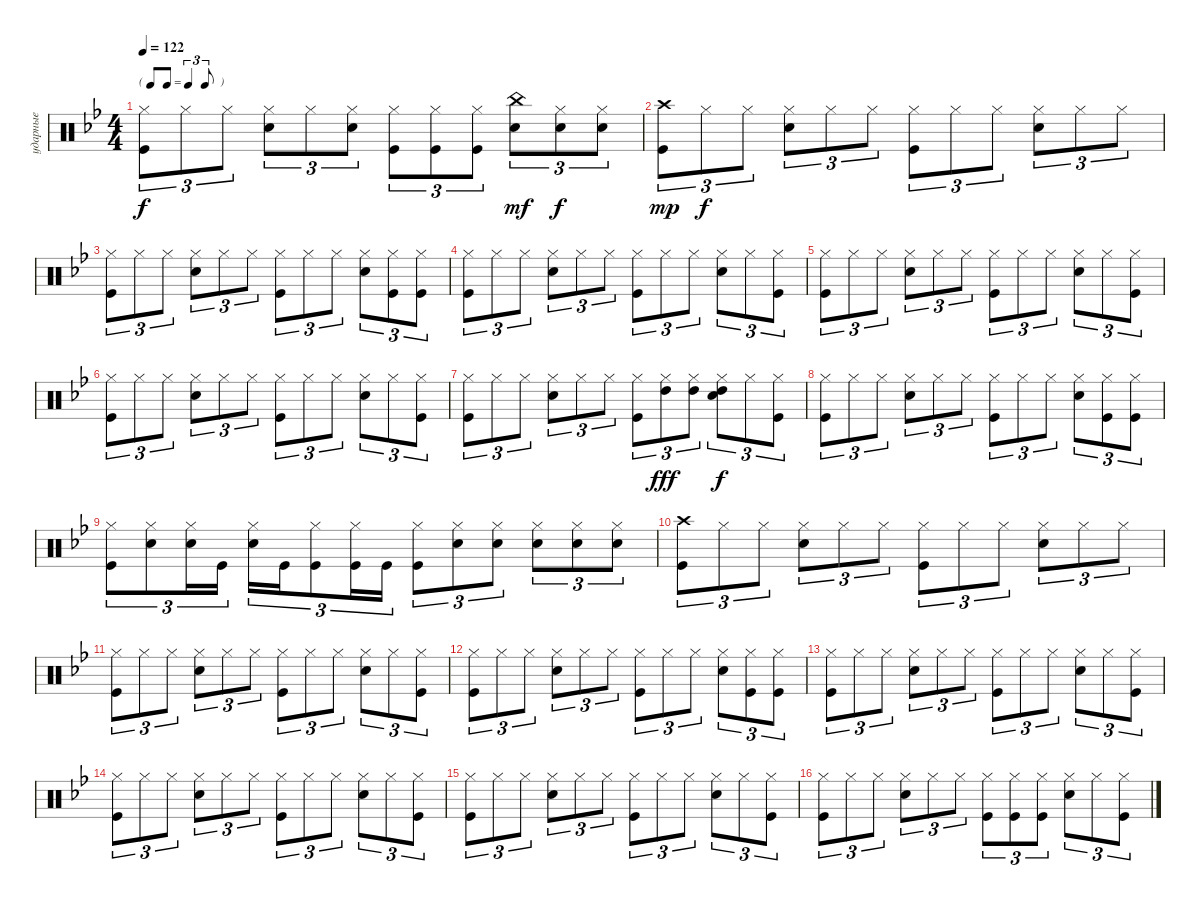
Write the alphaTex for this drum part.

\track ("ударные" "ударные") {instrument percussion}
\staff {score}
\articulation defaults
\ts (4 4)
\tf triplet8th
\tempo 122
\clef neutral
\ks gminor
("Hi-Hat (closed)" "Kick (hit)").8{tu (3 2) dy f} "Hi-Hat (closed)".8{tu (3 2)} "Hi-Hat (closed)".8{tu (3 2)} ("Hi-Hat (closed)" "Snare (hit) 2").8{tu (3 2)} "Hi-Hat (closed)".8{tu (3 2)} ("Hi-Hat (closed)" "Snare (hit) 2").8{tu (3 2)} ("Hi-Hat (closed)" "Kick (hit)").8{tu (3 2)} ("Hi-Hat (closed)" "Kick (hit)").8{tu (3 2)} ("Hi-Hat (closed)" "Kick (hit)").8{tu (3 2)} ("Snare (hit) 2" "China (hit)").8{tu (3 2) dy mf} ("Hi-Hat (closed)" "Snare (hit) 2").8{tu (3 2) dy f} ("Hi-Hat (closed)" "Snare (hit) 2").8{tu (3 2)} |
("Kick (hit)" "Crash high (hit)").8{tu (3 2) dy mp} "Hi-Hat (closed)".8{tu (3 2) dy f} "Hi-Hat (closed)".8{tu (3 2)} ("Hi-Hat (closed)" "Snare (hit) 2").8{tu (3 2)} "Hi-Hat (closed)".8{tu (3 2)} "Hi-Hat (closed)".8{tu (3 2)} ("Hi-Hat (closed)" "Kick (hit)").8{tu (3 2)} "Hi-Hat (closed)".8{tu (3 2)} "Hi-Hat (closed)".8{tu (3 2)} ("Hi-Hat (closed)" "Snare (hit) 2").8{tu (3 2)} "Hi-Hat (closed)".8{tu (3 2)} "Hi-Hat (closed)".8{tu (3 2)} |
("Hi-Hat (closed)" "Kick (hit)").8{tu (3 2)} "Hi-Hat (closed)".8{tu (3 2)} "Hi-Hat (closed)".8{tu (3 2)} ("Hi-Hat (closed)" "Snare (hit) 2").8{tu (3 2)} "Hi-Hat (closed)".8{tu (3 2)} "Hi-Hat (closed)".8{tu (3 2)} ("Hi-Hat (closed)" "Kick (hit)").8{tu (3 2)} "Hi-Hat (closed)".8{tu (3 2)} "Hi-Hat (closed)".8{tu (3 2)} ("Hi-Hat (closed)" "Snare (hit) 2").8{tu (3 2)} ("Hi-Hat (closed)" "Kick (hit)").8{tu (3 2)} ("Hi-Hat (closed)" "Kick (hit)").8{tu (3 2)} |
("Hi-Hat (closed)" "Kick (hit)").8{tu (3 2)} "Hi-Hat (closed)".8{tu (3 2)} "Hi-Hat (closed)".8{tu (3 2)} ("Hi-Hat (closed)" "Snare (hit) 2").8{tu (3 2)} "Hi-Hat (closed)".8{tu (3 2)} "Hi-Hat (closed)".8{tu (3 2)} ("Hi-Hat (closed)" "Kick (hit)").8{tu (3 2)} "Hi-Hat (closed)".8{tu (3 2)} "Hi-Hat (closed)".8{tu (3 2)} ("Hi-Hat (closed)" "Snare (hit) 2").8{tu (3 2)} "Hi-Hat (closed)".8{tu (3 2)} ("Hi-Hat (closed)" "Kick (hit)").8{tu (3 2)} |
("Hi-Hat (closed)" "Kick (hit)").8{tu (3 2)} "Hi-Hat (closed)".8{tu (3 2)} "Hi-Hat (closed)".8{tu (3 2)} ("Hi-Hat (closed)" "Snare (hit) 2").8{tu (3 2)} "Hi-Hat (closed)".8{tu (3 2)} "Hi-Hat (closed)".8{tu (3 2)} ("Hi-Hat (closed)" "Kick (hit)").8{tu (3 2)} "Hi-Hat (closed)".8{tu (3 2)} "Hi-Hat (closed)".8{tu (3 2)} ("Hi-Hat (closed)" "Snare (hit) 2").8{tu (3 2)} "Hi-Hat (closed)".8{tu (3 2)} ("Hi-Hat (closed)" "Kick (hit)").8{tu (3 2)} |
("Hi-Hat (closed)" "Kick (hit)").8{tu (3 2)} "Hi-Hat (closed)".8{tu (3 2)} "Hi-Hat (closed)".8{tu (3 2)} ("Hi-Hat (closed)" "Snare (hit) 2").8{tu (3 2)} "Hi-Hat (closed)".8{tu (3 2)} "Hi-Hat (closed)".8{tu (3 2)} ("Hi-Hat (closed)" "Kick (hit)").8{tu (3 2)} "Hi-Hat (closed)".8{tu (3 2)} "Hi-Hat (closed)".8{tu (3 2)} ("Hi-Hat (closed)" "Snare (hit) 2").8{tu (3 2)} "Hi-Hat (closed)".8{tu (3 2)} ("Hi-Hat (closed)" "Kick (hit)").8{tu (3 2)} |
("Hi-Hat (closed)" "Kick (hit)").8{tu (3 2)} "Hi-Hat (closed)".8{tu (3 2)} "Hi-Hat (closed)".8{tu (3 2)} ("Hi-Hat (closed)" "Snare (hit) 2").8{tu (3 2)} "Hi-Hat (closed)".8{tu (3 2)} "Hi-Hat (closed)".8{tu (3 2)} ("Hi-Hat (closed)" "Kick (hit)").8{tu (3 2)} ("Hi-Hat (closed)" "High Tom (hit)").8{tu (3 2) dy fff} ("Hi-Hat (closed)" "High Tom (hit)").8{tu (3 2)} ("Hi-Hat (closed)" "Snare (hit) 2" "High Tom (hit)").8{tu (3 2) dy f} "Hi-Hat (closed)".8{tu (3 2)} ("Hi-Hat (closed)" "Kick (hit)").8{tu (3 2)} |
("Hi-Hat (closed)" "Kick (hit)").8{tu (3 2)} "Hi-Hat (closed)".8{tu (3 2)} "Hi-Hat (closed)".8{tu (3 2)} ("Hi-Hat (closed)" "Snare (hit) 2").8{tu (3 2)} "Hi-Hat (closed)".8{tu (3 2)} "Hi-Hat (closed)".8{tu (3 2)} ("Hi-Hat (closed)" "Kick (hit)").8{tu (3 2)} "Hi-Hat (closed)".8{tu (3 2)} "Hi-Hat (closed)".8{tu (3 2)} ("Hi-Hat (closed)" "Snare (hit) 2").8{tu (3 2)} ("Hi-Hat (closed)" "Kick (hit)").8{tu (3 2)} ("Hi-Hat (closed)" "Kick (hit)").8{tu (3 2)} |
("Hi-Hat (closed)" "Kick (hit)").8{tu (3 2)} ("Hi-Hat (closed)" "Snare (hit) 2").8{tu (3 2)} ("Hi-Hat (closed)" "Snare (hit) 2").16{tu (3 2)} "Kick (hit)".16{tu (3 2)} ("Hi-Hat (closed)" "Snare (hit) 2").16{tu (3 2)} "Kick (hit)".16{tu (3 2)} ("Hi-Hat (closed)" "Kick (hit)").8{tu (3 2)} ("Hi-Hat (closed)" "Kick (hit)").16{tu (3 2)} "Kick (hit)".16{tu (3 2)} ("Hi-Hat (closed)" "Kick (hit)").8{tu (3 2)} ("Hi-Hat (closed)" "Snare (hit) 2").8{tu (3 2)} ("Hi-Hat (closed)" "Snare (hit) 2").8{tu (3 2)} ("Hi-Hat (closed)" "Snare (hit) 2").8{tu (3 2)} ("Hi-Hat (closed)" "Snare (hit) 2").8{tu (3 2)} ("Hi-Hat (closed)" "Snare (hit) 2").8{tu (3 2)} |
("Kick (hit)" "Crash high (hit)").8{tu (3 2)} "Hi-Hat (closed)".8{tu (3 2)} "Hi-Hat (closed)".8{tu (3 2)} ("Hi-Hat (closed)" "Snare (hit) 2").8{tu (3 2)} "Hi-Hat (closed)".8{tu (3 2)} "Hi-Hat (closed)".8{tu (3 2)} ("Hi-Hat (closed)" "Kick (hit)").8{tu (3 2)} "Hi-Hat (closed)".8{tu (3 2)} "Hi-Hat (closed)".8{tu (3 2)} ("Hi-Hat (closed)" "Snare (hit) 2").8{tu (3 2)} "Hi-Hat (closed)".8{tu (3 2)} "Hi-Hat (closed)".8{tu (3 2)} |
("Hi-Hat (closed)" "Kick (hit)").8{tu (3 2)} "Hi-Hat (closed)".8{tu (3 2)} "Hi-Hat (closed)".8{tu (3 2)} ("Hi-Hat (closed)" "Snare (hit) 2").8{tu (3 2)} "Hi-Hat (closed)".8{tu (3 2)} "Hi-Hat (closed)".8{tu (3 2)} ("Hi-Hat (closed)" "Kick (hit)").8{tu (3 2)} "Hi-Hat (closed)".8{tu (3 2)} "Hi-Hat (closed)".8{tu (3 2)} ("Hi-Hat (closed)" "Snare (hit) 2").8{tu (3 2)} "Hi-Hat (closed)".8{tu (3 2)} ("Hi-Hat (closed)" "Kick (hit)").8{tu (3 2)} |
("Hi-Hat (closed)" "Kick (hit)").8{tu (3 2)} "Hi-Hat (closed)".8{tu (3 2)} "Hi-Hat (closed)".8{tu (3 2)} ("Hi-Hat (closed)" "Snare (hit) 2").8{tu (3 2)} "Hi-Hat (closed)".8{tu (3 2)} "Hi-Hat (closed)".8{tu (3 2)} ("Hi-Hat (closed)" "Kick (hit)").8{tu (3 2)} "Hi-Hat (closed)".8{tu (3 2)} "Hi-Hat (closed)".8{tu (3 2)} ("Hi-Hat (closed)" "Snare (hit) 2").8{tu (3 2)} ("Hi-Hat (closed)" "Kick (hit)").8{tu (3 2)} ("Hi-Hat (closed)" "Kick (hit)").8{tu (3 2)} |
("Hi-Hat (closed)" "Kick (hit)").8{tu (3 2)} "Hi-Hat (closed)".8{tu (3 2)} "Hi-Hat (closed)".8{tu (3 2)} ("Hi-Hat (closed)" "Snare (hit) 2").8{tu (3 2)} "Hi-Hat (closed)".8{tu (3 2)} "Hi-Hat (closed)".8{tu (3 2)} ("Hi-Hat (closed)" "Kick (hit)").8{tu (3 2)} "Hi-Hat (closed)".8{tu (3 2)} "Hi-Hat (closed)".8{tu (3 2)} ("Hi-Hat (closed)" "Snare (hit) 2").8{tu (3 2)} "Hi-Hat (closed)".8{tu (3 2)} ("Hi-Hat (closed)" "Kick (hit)").8{tu (3 2)} |
("Hi-Hat (closed)" "Kick (hit)").8{tu (3 2)} "Hi-Hat (closed)".8{tu (3 2)} "Hi-Hat (closed)".8{tu (3 2)} ("Hi-Hat (closed)" "Snare (hit) 2").8{tu (3 2)} "Hi-Hat (closed)".8{tu (3 2)} "Hi-Hat (closed)".8{tu (3 2)} ("Hi-Hat (closed)" "Kick (hit)").8{tu (3 2)} "Hi-Hat (closed)".8{tu (3 2)} "Hi-Hat (closed)".8{tu (3 2)} ("Hi-Hat (closed)" "Snare (hit) 2").8{tu (3 2)} "Hi-Hat (closed)".8{tu (3 2)} ("Hi-Hat (closed)" "Kick (hit)").8{tu (3 2)} |
("Hi-Hat (closed)" "Kick (hit)").8{tu (3 2)} "Hi-Hat (closed)".8{tu (3 2)} "Hi-Hat (closed)".8{tu (3 2)} ("Hi-Hat (closed)" "Snare (hit) 2").8{tu (3 2)} "Hi-Hat (closed)".8{tu (3 2)} "Hi-Hat (closed)".8{tu (3 2)} ("Hi-Hat (closed)" "Kick (hit)").8{tu (3 2)} "Hi-Hat (closed)".8{tu (3 2)} "Hi-Hat (closed)".8{tu (3 2)} ("Hi-Hat (closed)" "Snare (hit) 2").8{tu (3 2)} "Hi-Hat (closed)".8{tu (3 2)} ("Hi-Hat (closed)" "Kick (hit)").8{tu (3 2)} |
("Hi-Hat (closed)" "Kick (hit)").8{tu (3 2)} "Hi-Hat (closed)".8{tu (3 2)} "Hi-Hat (closed)".8{tu (3 2)} ("Hi-Hat (closed)" "Snare (hit) 2").8{tu (3 2)} "Hi-Hat (closed)".8{tu (3 2)} "Hi-Hat (closed)".8{tu (3 2)} ("Hi-Hat (closed)" "Kick (hit)").8{tu (3 2)} ("Hi-Hat (closed)" "Kick (hit)").8{tu (3 2)} ("Hi-Hat (closed)" "Kick (hit)").8{tu (3 2)} ("Hi-Hat (closed)" "Snare (hit) 2").8{tu (3 2)} "Hi-Hat (closed)".8{tu (3 2)} ("Hi-Hat (closed)" "Kick (hit)").8{tu (3 2)}
